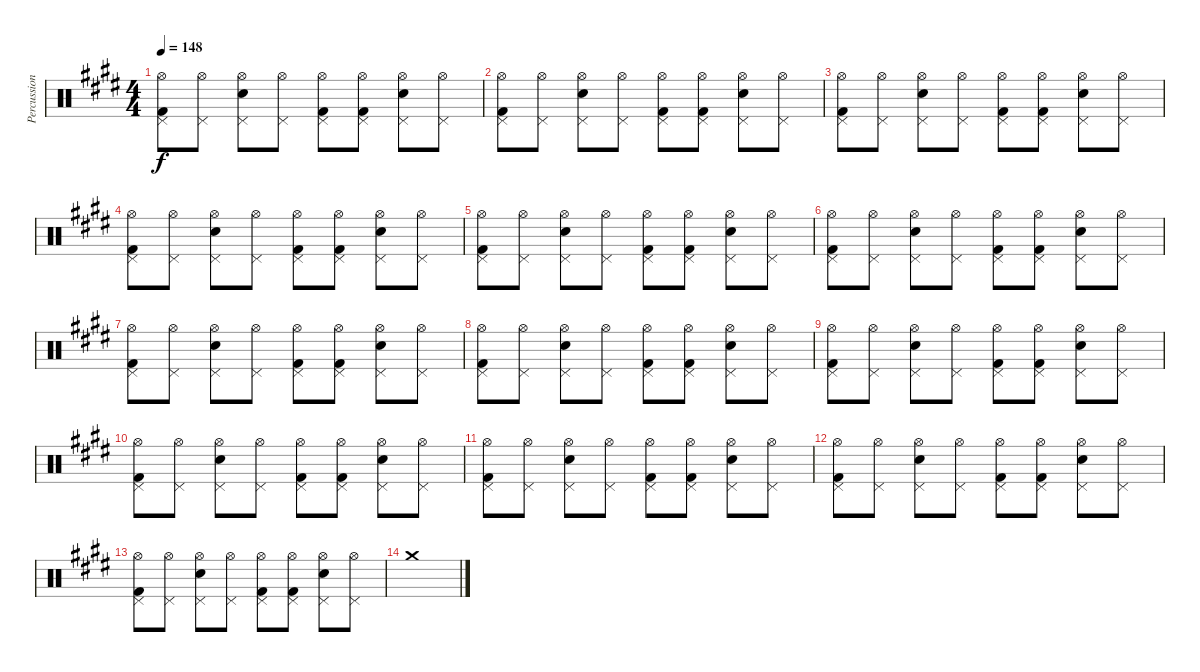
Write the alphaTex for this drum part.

\track ("Percussion" "Percussion") {instrument percussion}
\staff {score}
\articulation defaults
\ts (4 4)
\tempo 148
\clef neutral
\ks e
("Hi-Hat (open)" "Pedal Hi-Hat (hit)" "Kick (hit) 2").8{dy f} ("Hi-Hat (open)" "Pedal Hi-Hat (hit)").8 ("Hi-Hat (open)" "Pedal Hi-Hat (hit)" "Snare (hit) 2").8 ("Hi-Hat (open)" "Pedal Hi-Hat (hit)").8 ("Hi-Hat (open)" "Pedal Hi-Hat (hit)" "Kick (hit) 2").8 ("Hi-Hat (open)" "Pedal Hi-Hat (hit)" "Kick (hit) 2").8 ("Hi-Hat (open)" "Pedal Hi-Hat (hit)" "Snare (hit) 2").8 ("Hi-Hat (open)" "Pedal Hi-Hat (hit)").8 |
("Hi-Hat (open)" "Pedal Hi-Hat (hit)" "Kick (hit) 2").8 ("Hi-Hat (open)" "Pedal Hi-Hat (hit)").8 ("Hi-Hat (open)" "Pedal Hi-Hat (hit)" "Snare (hit) 2").8 ("Hi-Hat (open)" "Pedal Hi-Hat (hit)").8 ("Hi-Hat (open)" "Pedal Hi-Hat (hit)" "Kick (hit) 2").8 ("Hi-Hat (open)" "Pedal Hi-Hat (hit)" "Kick (hit) 2").8 ("Hi-Hat (open)" "Pedal Hi-Hat (hit)" "Snare (hit) 2").8 ("Hi-Hat (open)" "Pedal Hi-Hat (hit)").8 |
("Hi-Hat (open)" "Pedal Hi-Hat (hit)" "Kick (hit) 2").8 ("Hi-Hat (open)" "Pedal Hi-Hat (hit)").8 ("Hi-Hat (open)" "Pedal Hi-Hat (hit)" "Snare (hit) 2").8 ("Hi-Hat (open)" "Pedal Hi-Hat (hit)").8 ("Hi-Hat (open)" "Pedal Hi-Hat (hit)" "Kick (hit) 2").8 ("Hi-Hat (open)" "Pedal Hi-Hat (hit)" "Kick (hit) 2").8 ("Hi-Hat (open)" "Pedal Hi-Hat (hit)" "Snare (hit) 2").8 ("Hi-Hat (open)" "Pedal Hi-Hat (hit)").8 |
("Hi-Hat (open)" "Pedal Hi-Hat (hit)" "Kick (hit) 2").8 ("Hi-Hat (open)" "Pedal Hi-Hat (hit)").8 ("Hi-Hat (open)" "Pedal Hi-Hat (hit)" "Snare (hit) 2").8 ("Hi-Hat (open)" "Pedal Hi-Hat (hit)").8 ("Hi-Hat (open)" "Pedal Hi-Hat (hit)" "Kick (hit) 2").8 ("Hi-Hat (open)" "Pedal Hi-Hat (hit)" "Kick (hit) 2").8 ("Hi-Hat (open)" "Pedal Hi-Hat (hit)" "Snare (hit) 2").8 ("Hi-Hat (open)" "Pedal Hi-Hat (hit)").8 |
("Hi-Hat (open)" "Pedal Hi-Hat (hit)" "Kick (hit) 2").8 ("Hi-Hat (open)" "Pedal Hi-Hat (hit)").8 ("Hi-Hat (open)" "Pedal Hi-Hat (hit)" "Snare (hit) 2").8 ("Hi-Hat (open)" "Pedal Hi-Hat (hit)").8 ("Hi-Hat (open)" "Pedal Hi-Hat (hit)" "Kick (hit) 2").8 ("Hi-Hat (open)" "Pedal Hi-Hat (hit)" "Kick (hit) 2").8 ("Hi-Hat (open)" "Pedal Hi-Hat (hit)" "Snare (hit) 2").8 ("Hi-Hat (open)" "Pedal Hi-Hat (hit)").8 |
("Hi-Hat (open)" "Pedal Hi-Hat (hit)" "Kick (hit) 2").8 ("Hi-Hat (open)" "Pedal Hi-Hat (hit)").8 ("Hi-Hat (open)" "Pedal Hi-Hat (hit)" "Snare (hit) 2").8 ("Hi-Hat (open)" "Pedal Hi-Hat (hit)").8 ("Hi-Hat (open)" "Pedal Hi-Hat (hit)" "Kick (hit) 2").8 ("Hi-Hat (open)" "Pedal Hi-Hat (hit)" "Kick (hit) 2").8 ("Hi-Hat (open)" "Pedal Hi-Hat (hit)" "Snare (hit) 2").8 ("Hi-Hat (open)" "Pedal Hi-Hat (hit)").8 |
("Hi-Hat (open)" "Pedal Hi-Hat (hit)" "Kick (hit) 2").8 ("Hi-Hat (open)" "Pedal Hi-Hat (hit)").8 ("Hi-Hat (open)" "Pedal Hi-Hat (hit)" "Snare (hit) 2").8 ("Hi-Hat (open)" "Pedal Hi-Hat (hit)").8 ("Hi-Hat (open)" "Pedal Hi-Hat (hit)" "Kick (hit) 2").8 ("Hi-Hat (open)" "Pedal Hi-Hat (hit)" "Kick (hit) 2").8 ("Hi-Hat (open)" "Pedal Hi-Hat (hit)" "Snare (hit) 2").8 ("Hi-Hat (open)" "Pedal Hi-Hat (hit)").8 |
("Hi-Hat (open)" "Pedal Hi-Hat (hit)" "Kick (hit) 2").8 ("Hi-Hat (open)" "Pedal Hi-Hat (hit)").8 ("Hi-Hat (open)" "Pedal Hi-Hat (hit)" "Snare (hit) 2").8 ("Hi-Hat (open)" "Pedal Hi-Hat (hit)").8 ("Hi-Hat (open)" "Pedal Hi-Hat (hit)" "Kick (hit) 2").8 ("Hi-Hat (open)" "Pedal Hi-Hat (hit)" "Kick (hit) 2").8 ("Hi-Hat (open)" "Pedal Hi-Hat (hit)" "Snare (hit) 2").8 ("Hi-Hat (open)" "Pedal Hi-Hat (hit)").8 |
("Hi-Hat (open)" "Pedal Hi-Hat (hit)" "Kick (hit) 2").8 ("Hi-Hat (open)" "Pedal Hi-Hat (hit)").8 ("Hi-Hat (open)" "Pedal Hi-Hat (hit)" "Snare (hit) 2").8 ("Hi-Hat (open)" "Pedal Hi-Hat (hit)").8 ("Hi-Hat (open)" "Pedal Hi-Hat (hit)" "Kick (hit) 2").8 ("Hi-Hat (open)" "Pedal Hi-Hat (hit)" "Kick (hit) 2").8 ("Hi-Hat (open)" "Pedal Hi-Hat (hit)" "Snare (hit) 2").8 ("Hi-Hat (open)" "Pedal Hi-Hat (hit)").8 |
("Hi-Hat (open)" "Pedal Hi-Hat (hit)" "Kick (hit) 2").8 ("Hi-Hat (open)" "Pedal Hi-Hat (hit)").8 ("Hi-Hat (open)" "Pedal Hi-Hat (hit)" "Snare (hit) 2").8 ("Hi-Hat (open)" "Pedal Hi-Hat (hit)").8 ("Hi-Hat (open)" "Pedal Hi-Hat (hit)" "Kick (hit) 2").8 ("Hi-Hat (open)" "Pedal Hi-Hat (hit)" "Kick (hit) 2").8 ("Hi-Hat (open)" "Pedal Hi-Hat (hit)" "Snare (hit) 2").8 ("Hi-Hat (open)" "Pedal Hi-Hat (hit)").8 |
("Hi-Hat (open)" "Pedal Hi-Hat (hit)" "Kick (hit) 2").8 ("Hi-Hat (open)" "Pedal Hi-Hat (hit)").8 ("Hi-Hat (open)" "Pedal Hi-Hat (hit)" "Snare (hit) 2").8 ("Hi-Hat (open)" "Pedal Hi-Hat (hit)").8 ("Hi-Hat (open)" "Pedal Hi-Hat (hit)" "Kick (hit) 2").8 ("Hi-Hat (open)" "Pedal Hi-Hat (hit)" "Kick (hit) 2").8 ("Hi-Hat (open)" "Pedal Hi-Hat (hit)" "Snare (hit) 2").8 ("Hi-Hat (open)" "Pedal Hi-Hat (hit)").8 |
("Hi-Hat (open)" "Pedal Hi-Hat (hit)" "Kick (hit) 2").8 ("Hi-Hat (open)" "Pedal Hi-Hat (hit)").8 ("Hi-Hat (open)" "Pedal Hi-Hat (hit)" "Snare (hit) 2").8 ("Hi-Hat (open)" "Pedal Hi-Hat (hit)").8 ("Hi-Hat (open)" "Pedal Hi-Hat (hit)" "Kick (hit) 2").8 ("Hi-Hat (open)" "Pedal Hi-Hat (hit)" "Kick (hit) 2").8 ("Hi-Hat (open)" "Pedal Hi-Hat (hit)" "Snare (hit) 2").8 ("Hi-Hat (open)" "Pedal Hi-Hat (hit)").8 |
("Hi-Hat (open)" "Pedal Hi-Hat (hit)" "Kick (hit) 2").8 ("Hi-Hat (open)" "Pedal Hi-Hat (hit)").8 ("Hi-Hat (open)" "Pedal Hi-Hat (hit)" "Snare (hit) 2").8 ("Hi-Hat (open)" "Pedal Hi-Hat (hit)").8 ("Hi-Hat (open)" "Pedal Hi-Hat (hit)" "Kick (hit) 2").8 ("Hi-Hat (open)" "Pedal Hi-Hat (hit)" "Kick (hit) 2").8 ("Hi-Hat (open)" "Pedal Hi-Hat (hit)" "Snare (hit) 2").8 ("Hi-Hat (open)" "Pedal Hi-Hat (hit)").8 |
"Crash medium (hit)".1
